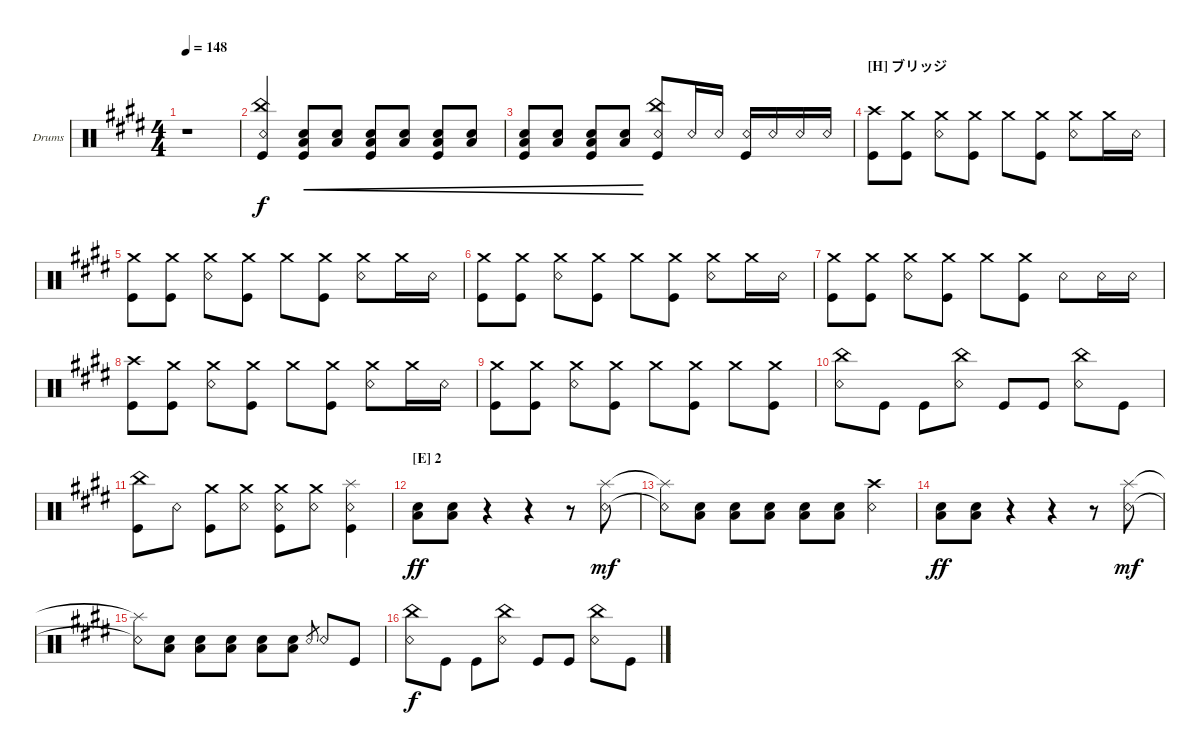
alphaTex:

\bracketExtendMode groupsimilarinstruments
\firstSystemTrackNameOrientation horizontal
\otherSystemsTrackNameOrientation horizontal
\track ("Ichigo" "Drums") {instrument percussion}
\staff {score}
\articulation defaults
\ts (4 4)
\tempo 148
\clef neutral
\ks e
r.1{dy f} |
("Snare (rim shot)" "China (hit)" "Kick (hit)").4 ("Kick (hit)" "Low Tom (hit)" "Snare (hit) 2").8{cre} ("Snare (hit) 2" "Low Tom (hit)").8{cre} ("Low Tom (hit)" "Snare (hit) 2" "Kick (hit)").8{cre} ("Low Tom (hit)" "Snare (hit) 2").8{cre} ("Low Tom (hit)" "Snare (hit) 2" "Kick (hit)").8{cre} ("Low Tom (hit)" "Snare (hit) 2").8{cre} |
("Low Tom (hit)" "Kick (hit)" "Snare (hit) 2").8{cre} ("Snare (hit) 2" "Low Tom (hit)").8{cre} ("Snare (hit) 2" "Low Tom (hit)" "Kick (hit)").8{cre} ("Snare (hit) 2" "Low Tom (hit)").8{cre} ("Snare (rim shot)" "China (hit)" "Kick (hit)").8 "Snare (rim shot)".16 "Snare (rim shot)".16 ("Snare (rim shot)" "Kick (hit)").16 "Snare (rim shot)".16 "Snare (rim shot)".16 "Snare (rim shot)".16 |
\section ("H" "ブリッジ")
("Kick (hit)" "Crash high (hit)").8 ("Crash medium (hit)" "Kick (hit)").8 ("Crash medium (hit)" "Snare (rim shot)").8 ("Crash medium (hit)" "Kick (hit)").8 "Crash medium (hit)".8 ("Crash medium (hit)" "Kick (hit)").8 ("Crash medium (hit)" "Snare (rim shot)").8 "Crash medium (hit)".16 "Snare (rim shot)".16 |
("Kick (hit)" "Crash medium (hit)").8 ("Crash medium (hit)" "Kick (hit)").8 ("Crash medium (hit)" "Snare (rim shot)").8 ("Crash medium (hit)" "Kick (hit)").8 "Crash medium (hit)".8 ("Crash medium (hit)" "Kick (hit)").8 ("Crash medium (hit)" "Snare (rim shot)").8 "Crash medium (hit)".16 "Snare (rim shot)".16 |
("Kick (hit)" "Crash medium (hit)").8 ("Crash medium (hit)" "Kick (hit)").8 ("Crash medium (hit)" "Snare (rim shot)").8 ("Crash medium (hit)" "Kick (hit)").8 "Crash medium (hit)".8 ("Crash medium (hit)" "Kick (hit)").8 ("Crash medium (hit)" "Snare (rim shot)").8 "Crash medium (hit)".16 "Snare (rim shot)".16 |
("Kick (hit)" "Crash medium (hit)").8 ("Crash medium (hit)" "Kick (hit)").8 ("Crash medium (hit)" "Snare (rim shot)").8 ("Crash medium (hit)" "Kick (hit)").8 "Crash medium (hit)".8 ("Crash medium (hit)" "Kick (hit)").8 "Snare (rim shot)".8 "Snare (rim shot)".16 "Snare (rim shot)".16 |
("Kick (hit)" "Crash high (hit)").8 ("Crash medium (hit)" "Kick (hit)").8 ("Crash medium (hit)" "Snare (rim shot)").8 ("Crash medium (hit)" "Kick (hit)").8 "Crash medium (hit)".8 ("Crash medium (hit)" "Kick (hit)").8 ("Crash medium (hit)" "Snare (rim shot)").8 "Crash medium (hit)".16 "Snare (rim shot)".16 |
("Kick (hit)" "Crash medium (hit)").8 ("Crash medium (hit)" "Kick (hit)").8 ("Crash medium (hit)" "Snare (rim shot)").8 ("Crash medium (hit)" "Kick (hit)").8 "Crash medium (hit)".8 ("Crash medium (hit)" "Kick (hit)").8 "Crash medium (hit)".8 ("Crash medium (hit)" "Kick (hit)").8 |
("China (hit)" "Snare (rim shot)").8 "Kick (hit)".8 "Kick (hit)".8 ("Snare (rim shot)" "China (hit)").8 "Kick (hit)".8 "Kick (hit)".8 ("Snare (rim shot)" "China (hit)").8 "Kick (hit)".8 |
("China (hit)" "Kick (hit)").8 "Snare (rim shot)".8 ("Kick (hit)" "Crash medium (hit)").8 ("Snare (rim shot)" "Crash medium (hit)").8 ("Snare (rim shot)" "Crash medium (hit)" "Kick (hit)").8 ("Snare (rim shot)" "Crash medium (hit)").8 ("Snare (rim shot)" "Splash (hit)" "Kick (hit)").4 |
\section ("E" "2")
("Snare (hit) 2" "Low Tom (hit)").8{dy ff} ("Low Tom (hit)" "Snare (hit) 2").8 r.4 r.4 r.8 ("Snare (rim shot)" "Splash (hit)").8{dy mf} |
("Snare (rim shot)"{t} "Splash (hit)"{t}).8 ("Low Tom (hit)" "Snare (hit) 2").8 ("Snare (hit) 2" "Low Tom (hit)").8 ("Snare (hit) 2" "Low Tom (hit)").8 ("Snare (hit) 2" "Low Tom (hit)").8 ("Snare (hit) 2" "Low Tom (hit)").8 ("Snare (rim shot)" "Crash high (hit)").4 |
("Snare (hit) 2" "Low Tom (hit)").8{dy ff} ("Low Tom (hit)" "Snare (hit) 2").8 r.4 r.4 r.8 ("Snare (rim shot)" "Splash (hit)").8{dy mf} |
("Snare (rim shot)"{t} "Splash (hit)"{t}).8 ("Low Tom (hit)" "Snare (hit) 2").8 ("Snare (hit) 2" "Low Tom (hit)").8 ("Snare (hit) 2" "Low Tom (hit)").8 ("Snare (hit) 2" "Low Tom (hit)").8 ("Snare (hit) 2" "Low Tom (hit)").8 "Snare (rim shot)".8{gr} "Snare (rim shot)".8 "Kick (hit)".8 |
("China (hit)" "Snare (rim shot)").8{dy f} "Kick (hit)".8 "Kick (hit)".8 ("Snare (rim shot)" "China (hit)").8 "Kick (hit)".8 "Kick (hit)".8 ("Snare (rim shot)" "China (hit)").8 "Kick (hit)".8
